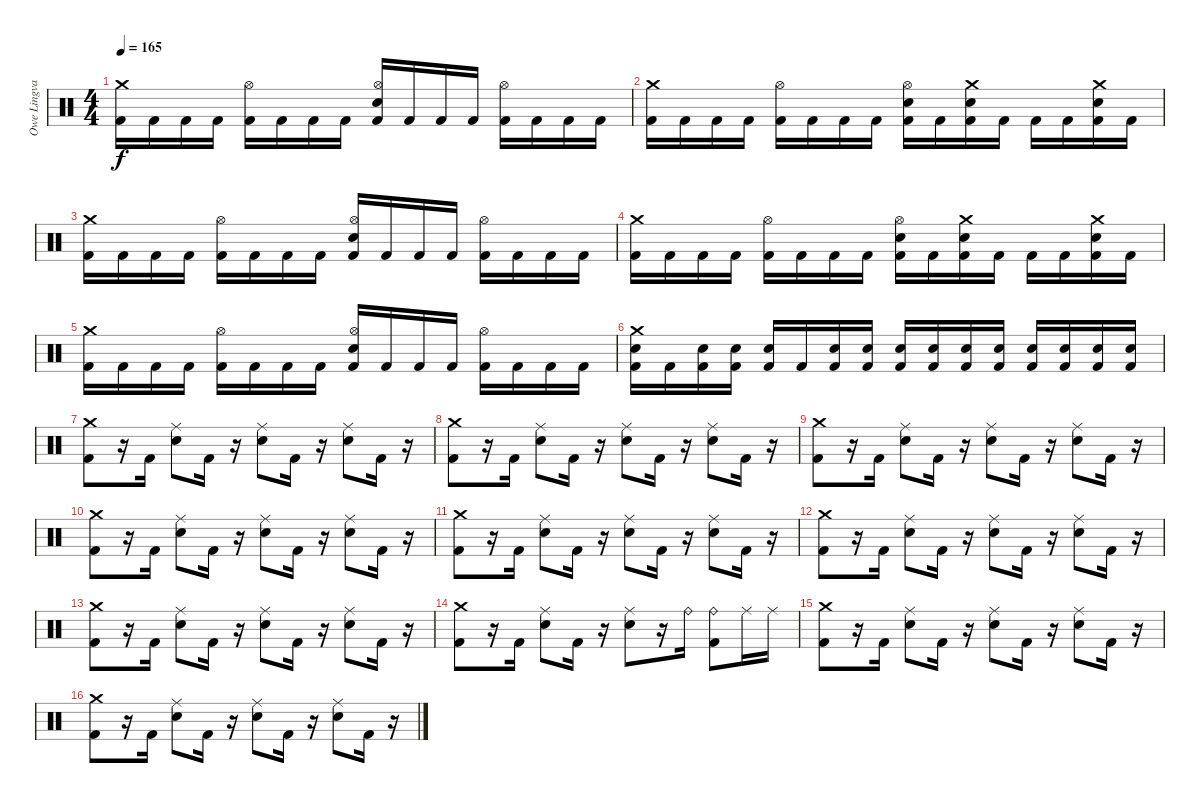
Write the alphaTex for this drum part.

\track ("Owe Lingvall" "Owe Lingva") {instrument percussion}
\staff {score}
\articulation defaults
\ts (4 4)
\tempo 165
\clef neutral
\ks c
("Crash medium (hit)" "Kick (hit) 2").16{dy f} "Kick (hit) 2".16 "Kick (hit) 2".16 "Kick (hit) 2".16 ("Hi-Hat (open)" "Kick (hit) 2").16 "Kick (hit) 2".16 "Kick (hit) 2".16 "Kick (hit) 2".16 ("Hi-Hat (open)" "Snare (hit) 2" "Kick (hit) 2").16 "Kick (hit) 2".16 "Kick (hit) 2".16 "Kick (hit) 2".16 ("Hi-Hat (open)" "Kick (hit) 2").16 "Kick (hit) 2".16 "Kick (hit) 2".16 "Kick (hit) 2".16 |
("Crash medium (hit)" "Kick (hit) 2").16 "Kick (hit) 2".16 "Kick (hit) 2".16 "Kick (hit) 2".16 ("Hi-Hat (open)" "Kick (hit) 2").16 "Kick (hit) 2".16 "Kick (hit) 2".16 "Kick (hit) 2".16 ("Hi-Hat (open)" "Snare (hit) 2" "Kick (hit) 2").16 "Kick (hit) 2".16 ("Crash medium (hit)" "Snare (hit) 2" "Kick (hit) 2").16 "Kick (hit) 2".16 "Kick (hit) 2".16 "Kick (hit) 2".16 ("Crash medium (hit)" "Snare (hit) 2" "Kick (hit) 2").16 "Kick (hit) 2".16 |
("Crash medium (hit)" "Kick (hit) 2").16 "Kick (hit) 2".16 "Kick (hit) 2".16 "Kick (hit) 2".16 ("Hi-Hat (open)" "Kick (hit) 2").16 "Kick (hit) 2".16 "Kick (hit) 2".16 "Kick (hit) 2".16 ("Hi-Hat (open)" "Snare (hit) 2" "Kick (hit) 2").16 "Kick (hit) 2".16 "Kick (hit) 2".16 "Kick (hit) 2".16 ("Hi-Hat (open)" "Kick (hit) 2").16 "Kick (hit) 2".16 "Kick (hit) 2".16 "Kick (hit) 2".16 |
("Crash medium (hit)" "Kick (hit) 2").16 "Kick (hit) 2".16 "Kick (hit) 2".16 "Kick (hit) 2".16 ("Hi-Hat (open)" "Kick (hit) 2").16 "Kick (hit) 2".16 "Kick (hit) 2".16 "Kick (hit) 2".16 ("Hi-Hat (open)" "Snare (hit) 2" "Kick (hit) 2").16 "Kick (hit) 2".16 ("Crash medium (hit)" "Snare (hit) 2" "Kick (hit) 2").16 "Kick (hit) 2".16 "Kick (hit) 2".16 "Kick (hit) 2".16 ("Crash medium (hit)" "Snare (hit) 2" "Kick (hit) 2").16 "Kick (hit) 2".16 |
("Crash medium (hit)" "Kick (hit) 2").16 "Kick (hit) 2".16 "Kick (hit) 2".16 "Kick (hit) 2".16 ("Hi-Hat (open)" "Kick (hit) 2").16 "Kick (hit) 2".16 "Kick (hit) 2".16 "Kick (hit) 2".16 ("Hi-Hat (open)" "Snare (hit) 2" "Kick (hit) 2").16 "Kick (hit) 2".16 "Kick (hit) 2".16 "Kick (hit) 2".16 ("Hi-Hat (open)" "Kick (hit) 2").16 "Kick (hit) 2".16 "Kick (hit) 2".16 "Kick (hit) 2".16 |
("Crash medium (hit)" "Snare (hit) 2" "Kick (hit) 2").16 "Kick (hit) 2".16 ("Snare (hit) 2" "Kick (hit) 2").16 ("Snare (hit) 2" "Kick (hit) 2").16 ("Snare (hit) 2" "Kick (hit) 2").16 "Kick (hit) 2".16 ("Snare (hit) 2" "Kick (hit) 2").16 ("Snare (hit) 2" "Kick (hit) 2").16 ("Snare (hit) 2" "Kick (hit) 2").16 ("Snare (hit) 2" "Kick (hit) 2").16 ("Snare (hit) 2" "Kick (hit) 2").16 ("Snare (hit) 2" "Kick (hit) 2").16 ("Snare (hit) 2" "Kick (hit) 2").16 ("Snare (hit) 2" "Kick (hit) 2").16 ("Snare (hit) 2" "Kick (hit) 2").16 ("Snare (hit) 2" "Kick (hit) 2").16 |
("Crash medium (hit)" "Kick (hit) 2").8 r.16 "Kick (hit) 2".16 ("Ride (middle)" "Snare (hit) 2").8 "Kick (hit) 2".16 r.16 ("Ride (middle)" "Snare (hit) 2").8 "Kick (hit) 2".16 r.16 ("Ride (middle)" "Snare (hit) 2").8 "Kick (hit) 2".16 r.16 |
("Crash medium (hit)" "Kick (hit) 2").8 r.16 "Kick (hit) 2".16 ("Ride (middle)" "Snare (hit) 2").8 "Kick (hit) 2".16 r.16 ("Ride (middle)" "Snare (hit) 2").8 "Kick (hit) 2".16 r.16 ("Ride (middle)" "Snare (hit) 2").8 "Kick (hit) 2".16 r.16 |
("Crash medium (hit)" "Kick (hit) 2").8 r.16 "Kick (hit) 2".16 ("Ride (middle)" "Snare (hit) 2").8 "Kick (hit) 2".16 r.16 ("Ride (middle)" "Snare (hit) 2").8 "Kick (hit) 2".16 r.16 ("Ride (middle)" "Snare (hit) 2").8 "Kick (hit) 2".16 r.16 |
("Crash medium (hit)" "Kick (hit) 2").8 r.16 "Kick (hit) 2".16 ("Ride (middle)" "Snare (hit) 2").8 "Kick (hit) 2".16 r.16 ("Ride (middle)" "Snare (hit) 2").8 "Kick (hit) 2".16 r.16 ("Ride (middle)" "Snare (hit) 2").8 "Kick (hit) 2".16 r.16 |
("Crash medium (hit)" "Kick (hit) 2").8 r.16 "Kick (hit) 2".16 ("Ride (middle)" "Snare (hit) 2").8 "Kick (hit) 2".16 r.16 ("Ride (middle)" "Snare (hit) 2").8 "Kick (hit) 2".16 r.16 ("Ride (middle)" "Snare (hit) 2").8 "Kick (hit) 2".16 r.16 |
("Crash medium (hit)" "Kick (hit) 2").8 r.16 "Kick (hit) 2".16 ("Ride (middle)" "Snare (hit) 2").8 "Kick (hit) 2".16 r.16 ("Ride (middle)" "Snare (hit) 2").8 "Kick (hit) 2".16 r.16 ("Ride (middle)" "Snare (hit) 2").8 "Kick (hit) 2".16 r.16 |
("Crash medium (hit)" "Kick (hit) 2").8 r.16 "Kick (hit) 2".16 ("Ride (middle)" "Snare (hit) 2").8 "Kick (hit) 2".16 r.16 ("Ride (middle)" "Snare (hit) 2").8 "Kick (hit) 2".16 r.16 ("Ride (middle)" "Snare (hit) 2").8 "Kick (hit) 2".16 r.16 |
("Crash medium (hit)" "Kick (hit) 2").8 r.16 "Kick (hit) 2".16 ("Ride (middle)" "Snare (hit) 2").8 "Kick (hit) 2".16 r.16 ("Ride (middle)" "Snare (hit) 2").8 r.16 "Ride (bell)".16 ("Ride (bell)" "Kick (hit) 2").8 "Ride (middle)".16 "Ride (middle)".16 |
("Crash medium (hit)" "Kick (hit) 2").8 r.16 "Kick (hit) 2".16 ("Ride (middle)" "Snare (hit) 2").8 "Kick (hit) 2".16 r.16 ("Ride (middle)" "Snare (hit) 2").8 "Kick (hit) 2".16 r.16 ("Ride (middle)" "Snare (hit) 2").8 "Kick (hit) 2".16 r.16 |
("Crash medium (hit)" "Kick (hit) 2").8 r.16 "Kick (hit) 2".16 ("Ride (middle)" "Snare (hit) 2").8 "Kick (hit) 2".16 r.16 ("Ride (middle)" "Snare (hit) 2").8 "Kick (hit) 2".16 r.16 ("Ride (middle)" "Snare (hit) 2").8 "Kick (hit) 2".16 r.16
